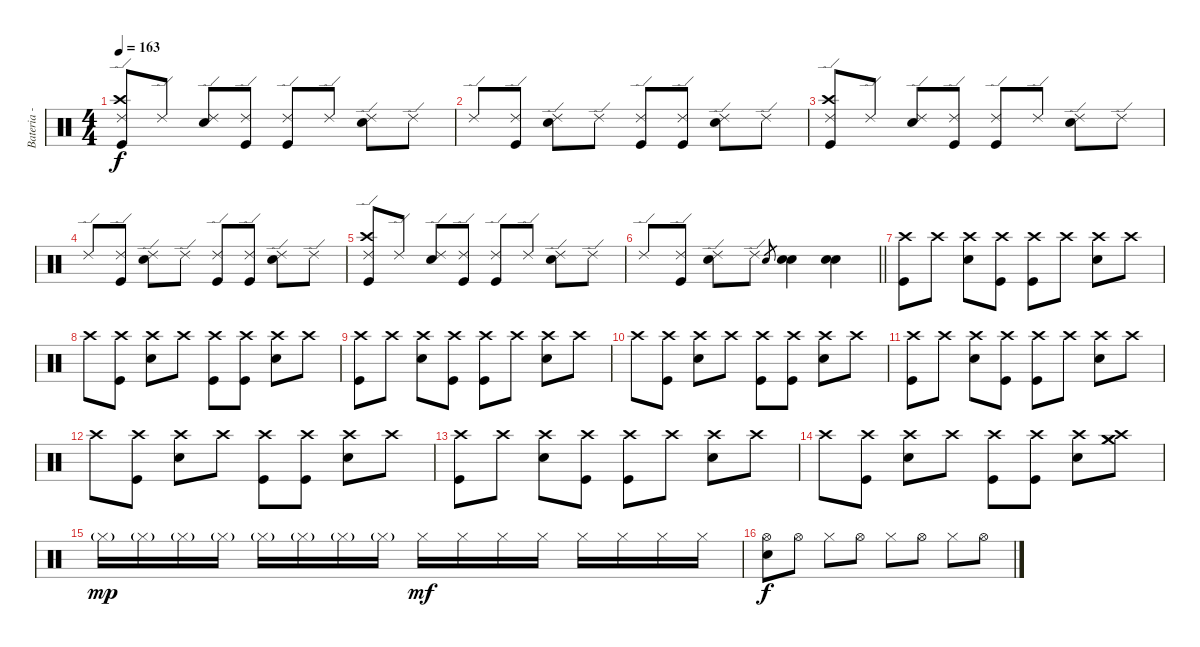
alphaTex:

\track ("Bateria - Larzon " "Bateria - ") {instrument percussion}
\staff {score}
\articulation defaults
\ts (4 4)
\tempo 163
\clef neutral
\ks c
("Kick (hit)" "Crash high (hit)" "Ride (edge) 2").8{dy f} "Ride (edge) 2".8 ("Electric Snare (hit)" "Ride (edge) 2").8 ("Kick (hit)" "Ride (edge) 2").8 ("Kick (hit)" "Ride (edge) 2").8 "Ride (edge) 2".8 ("Electric Snare (hit)" "Ride (edge) 2").8 "Ride (edge) 2".8 |
"Ride (edge) 2".8 ("Kick (hit)" "Ride (edge) 2").8 ("Electric Snare (hit)" "Ride (edge) 2").8 "Ride (edge) 2".8 ("Kick (hit)" "Ride (edge) 2").8 ("Kick (hit)" "Ride (edge) 2").8 ("Electric Snare (hit)" "Ride (edge) 2").8 "Ride (edge) 2".8 |
("Kick (hit)" "Crash high (hit)" "Ride (edge) 2").8 "Ride (edge) 2".8 ("Electric Snare (hit)" "Ride (edge) 2").8 ("Kick (hit)" "Ride (edge) 2").8 ("Kick (hit)" "Ride (edge) 2").8 "Ride (edge) 2".8 ("Electric Snare (hit)" "Ride (edge) 2").8 "Ride (edge) 2".8 |
"Ride (edge) 2".8 ("Kick (hit)" "Ride (edge) 2").8 ("Electric Snare (hit)" "Ride (edge) 2").8 "Ride (edge) 2".8 ("Kick (hit)" "Ride (edge) 2").8 ("Kick (hit)" "Ride (edge) 2").8 ("Electric Snare (hit)" "Ride (edge) 2").8 "Ride (edge) 2".8 |
("Kick (hit)" "Crash high (hit)" "Ride (edge) 2").8 "Ride (edge) 2".8 ("Electric Snare (hit)" "Ride (edge) 2").8 ("Kick (hit)" "Ride (edge) 2").8 ("Kick (hit)" "Ride (edge) 2").8 "Ride (edge) 2".8 ("Electric Snare (hit)" "Ride (edge) 2").8 "Ride (edge) 2".8 |
\barLineRight lightlight "Ride (edge) 2".8
("Kick (hit)" "Ride (edge) 2").8 ("Electric Snare (hit)" "Ride (edge) 2").8 "Ride (edge) 2".8 "Electric Snare (hit)".8{gr} ("Electric Snare (hit)" "Electric Snare (hit)").4 ("Electric Snare (hit)" "Electric Snare (hit)").4 |
("Kick (hit)" "Crash high (hit)").8 "Crash high (hit)".8 ("Electric Snare (hit)" "Crash high (hit)").8 ("Kick (hit)" "Crash high (hit)").8 ("Kick (hit)" "Crash high (hit)").8 "Crash high (hit)".8 ("Electric Snare (hit)" "Crash high (hit)").8 "Crash high (hit)".8 |
"Crash high (hit)".8 ("Kick (hit)" "Crash high (hit)").8 ("Electric Snare (hit)" "Crash high (hit)").8 "Crash high (hit)".8 ("Kick (hit)" "Crash high (hit)").8 ("Kick (hit)" "Crash high (hit)").8 ("Electric Snare (hit)" "Crash high (hit)").8 "Crash high (hit)".8 |
("Kick (hit)" "Crash high (hit)").8 "Crash high (hit)".8 ("Electric Snare (hit)" "Crash high (hit)").8 ("Kick (hit)" "Crash high (hit)").8 ("Kick (hit)" "Crash high (hit)").8 "Crash high (hit)".8 ("Electric Snare (hit)" "Crash high (hit)").8 "Crash high (hit)".8 |
"Crash high (hit)".8 ("Kick (hit)" "Crash high (hit)").8 ("Electric Snare (hit)" "Crash high (hit)").8 "Crash high (hit)".8 ("Kick (hit)" "Crash high (hit)").8 ("Kick (hit)" "Crash high (hit)").8 ("Electric Snare (hit)" "Crash high (hit)").8 "Crash high (hit)".8 |
("Kick (hit)" "Crash high (hit)").8 "Crash high (hit)".8 ("Electric Snare (hit)" "Crash high (hit)").8 ("Kick (hit)" "Crash high (hit)").8 ("Kick (hit)" "Crash high (hit)").8 "Crash high (hit)".8 ("Electric Snare (hit)" "Crash high (hit)").8 "Crash high (hit)".8 |
"Crash high (hit)".8 ("Kick (hit)" "Crash high (hit)").8 ("Electric Snare (hit)" "Crash high (hit)").8 "Crash high (hit)".8 ("Kick (hit)" "Crash high (hit)").8 ("Kick (hit)" "Crash high (hit)").8 ("Electric Snare (hit)" "Crash high (hit)").8 "Crash high (hit)".8 |
("Kick (hit)" "Crash high (hit)").8 "Crash high (hit)".8 ("Electric Snare (hit)" "Crash high (hit)").8 ("Kick (hit)" "Crash high (hit)").8 ("Kick (hit)" "Crash high (hit)").8 "Crash high (hit)".8 ("Electric Snare (hit)" "Crash high (hit)").8 "Crash high (hit)".8 |
"Crash high (hit)".8 ("Kick (hit)" "Crash high (hit)").8 ("Electric Snare (hit)" "Crash high (hit)").8 "Crash high (hit)".8 ("Kick (hit)" "Crash high (hit)").8 ("Kick (hit)" "Crash high (hit)").8 ("Electric Snare (hit)" "Crash high (hit)").8 ("Crash medium (hit)" "Crash medium (hit)" "Crash high (hit)").8 |
"Hi-Hat (closed)"{g}.16{dy mp} "Hi-Hat (closed)"{g}.16 "Hi-Hat (closed)"{g}.16 "Hi-Hat (closed)"{g}.16 "Hi-Hat (closed)"{g}.16 "Hi-Hat (closed)"{g}.16 "Hi-Hat (closed)"{g}.16 "Hi-Hat (closed)"{g}.16 "Hi-Hat (closed)".16{dy mf} "Hi-Hat (closed)".16 "Hi-Hat (closed)".16 "Hi-Hat (closed)".16 "Hi-Hat (closed)".16 "Hi-Hat (closed)".16 "Hi-Hat (closed)".16 "Hi-Hat (closed)".16 |
("Electric Snare (hit)" "Hi-Hat (open)").8{dy f} "Hi-Hat (open)".8 "Hi-Hat (closed)".8 "Hi-Hat (open)".8 "Hi-Hat (closed)".8 "Hi-Hat (open)".8 "Hi-Hat (closed)".8 "Hi-Hat (open)".8
